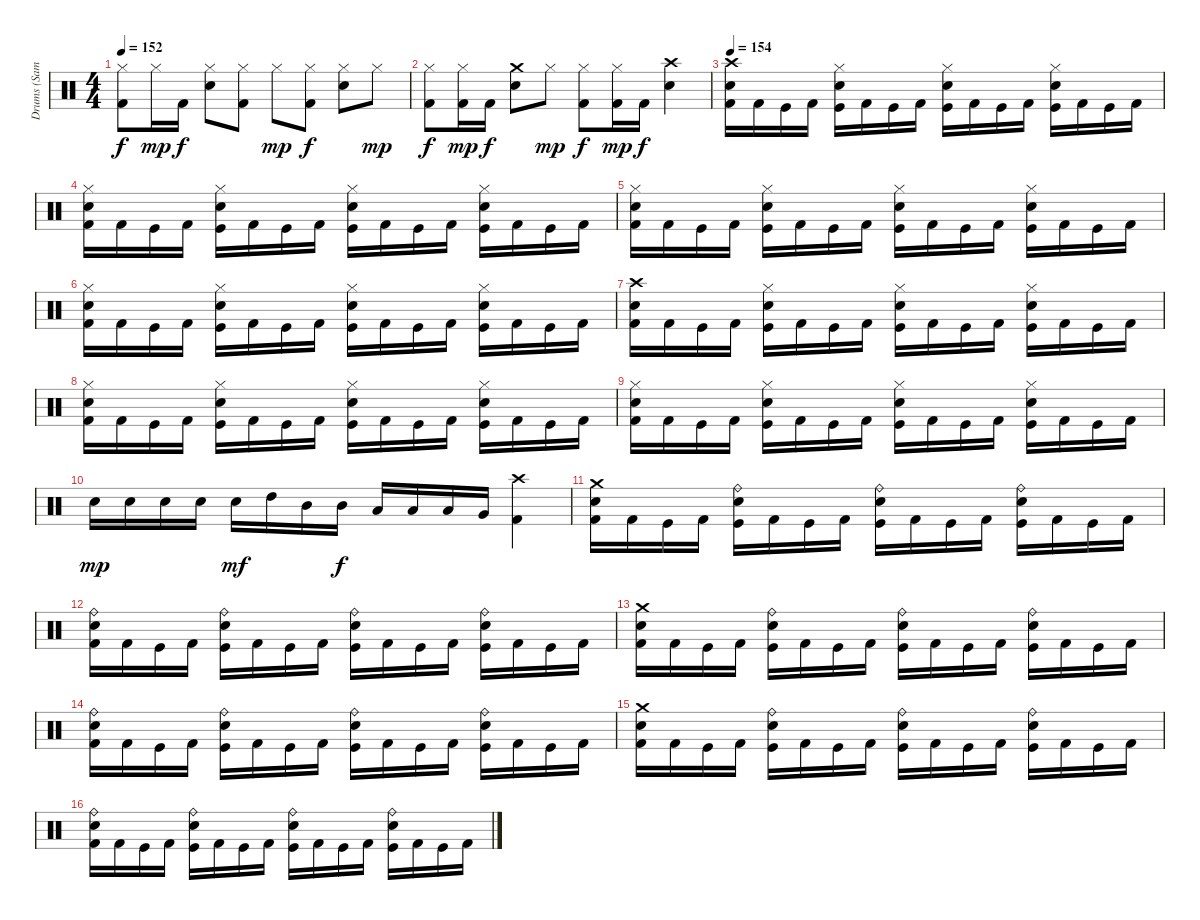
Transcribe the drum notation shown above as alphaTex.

\track ("Drums (Samuelson)" "Drums (Sam") {instrument percussion}
\staff
\articulation defaults
\ts (4 4)
\tempo 152
\clef neutral
\ks c
("Hi-Hat (closed)" "Kick (hit) 2").8{dy f} "Hi-Hat (closed)".16{dy mp} "Kick (hit) 2".16{dy f} ("Hi-Hat (closed)" "Electric Snare (hit)").8 ("Hi-Hat (closed)" "Kick (hit) 2").8 "Hi-Hat (closed)".8{dy mp} ("Hi-Hat (closed)" "Kick (hit) 2").8{dy f} ("Hi-Hat (closed)" "Electric Snare (hit)").8 "Hi-Hat (closed)".8{dy mp} |
("Hi-Hat (closed)" "Kick (hit) 2").8{dy f} ("Hi-Hat (closed)" "Kick (hit) 2").16{dy mp} "Kick (hit) 2".16{dy f} ("Crash medium (hit)" "Electric Snare (hit)").8 "Hi-Hat (closed)".8{dy mp} ("Hi-Hat (closed)" "Kick (hit) 2").8{dy f} ("Hi-Hat (closed)" "Kick (hit) 2").16{dy mp} "Kick (hit) 2".16{dy f} ("Crash high (hit)" "Electric Snare (hit)").4 |
\tempo 152
\tempo 154
("Crash high (hit)" "Electric Snare (hit)" "Kick (hit) 2").16 "Kick (hit) 2".16 "Kick (hit)".16 "Kick (hit) 2".16 ("Hi-Hat (closed)" "Electric Snare (hit)" "Kick (hit)").16 "Kick (hit) 2".16 "Kick (hit)".16 "Kick (hit) 2".16 ("Hi-Hat (closed)" "Electric Snare (hit)" "Kick (hit)").16 "Kick (hit) 2".16 "Kick (hit)".16 "Kick (hit) 2".16 ("Hi-Hat (closed)" "Electric Snare (hit)" "Kick (hit)").16 "Kick (hit) 2".16 "Kick (hit)".16 "Kick (hit) 2".16 |
("Hi-Hat (closed)" "Electric Snare (hit)" "Kick (hit) 2").16 "Kick (hit) 2".16 "Kick (hit)".16 "Kick (hit) 2".16 ("Hi-Hat (closed)" "Electric Snare (hit)" "Kick (hit)").16 "Kick (hit) 2".16 "Kick (hit)".16 "Kick (hit) 2".16 ("Hi-Hat (closed)" "Electric Snare (hit)" "Kick (hit)").16 "Kick (hit) 2".16 "Kick (hit)".16 "Kick (hit) 2".16 ("Hi-Hat (closed)" "Electric Snare (hit)" "Kick (hit)").16 "Kick (hit) 2".16 "Kick (hit)".16 "Kick (hit) 2".16 |
("Hi-Hat (closed)" "Electric Snare (hit)" "Kick (hit) 2").16 "Kick (hit) 2".16 "Kick (hit)".16 "Kick (hit) 2".16 ("Hi-Hat (closed)" "Electric Snare (hit)" "Kick (hit)").16 "Kick (hit) 2".16 "Kick (hit)".16 "Kick (hit) 2".16 ("Hi-Hat (closed)" "Electric Snare (hit)" "Kick (hit)").16 "Kick (hit) 2".16 "Kick (hit)".16 "Kick (hit) 2".16 ("Hi-Hat (closed)" "Electric Snare (hit)" "Kick (hit)").16 "Kick (hit) 2".16 "Kick (hit)".16 "Kick (hit) 2".16 |
("Hi-Hat (closed)" "Electric Snare (hit)" "Kick (hit) 2").16 "Kick (hit) 2".16 "Kick (hit)".16 "Kick (hit) 2".16 ("Hi-Hat (closed)" "Electric Snare (hit)" "Kick (hit)").16 "Kick (hit) 2".16 "Kick (hit)".16 "Kick (hit) 2".16 ("Hi-Hat (closed)" "Electric Snare (hit)" "Kick (hit)").16 "Kick (hit) 2".16 "Kick (hit)".16 "Kick (hit) 2".16 ("Hi-Hat (closed)" "Electric Snare (hit)" "Kick (hit)").16 "Kick (hit) 2".16 "Kick (hit)".16 "Kick (hit) 2".16 |
("Crash high (hit)" "Electric Snare (hit)" "Kick (hit) 2").16 "Kick (hit) 2".16 "Kick (hit)".16 "Kick (hit) 2".16 ("Hi-Hat (closed)" "Electric Snare (hit)" "Kick (hit)").16 "Kick (hit) 2".16 "Kick (hit)".16 "Kick (hit) 2".16 ("Hi-Hat (closed)" "Electric Snare (hit)" "Kick (hit)").16 "Kick (hit) 2".16 "Kick (hit)".16 "Kick (hit) 2".16 ("Hi-Hat (closed)" "Electric Snare (hit)" "Kick (hit)").16 "Kick (hit) 2".16 "Kick (hit)".16 "Kick (hit) 2".16 |
("Hi-Hat (closed)" "Electric Snare (hit)" "Kick (hit) 2").16 "Kick (hit) 2".16 "Kick (hit)".16 "Kick (hit) 2".16 ("Hi-Hat (closed)" "Electric Snare (hit)" "Kick (hit)").16 "Kick (hit) 2".16 "Kick (hit)".16 "Kick (hit) 2".16 ("Hi-Hat (closed)" "Electric Snare (hit)" "Kick (hit)").16 "Kick (hit) 2".16 "Kick (hit)".16 "Kick (hit) 2".16 ("Hi-Hat (closed)" "Electric Snare (hit)" "Kick (hit)").16 "Kick (hit) 2".16 "Kick (hit)".16 "Kick (hit) 2".16 |
("Hi-Hat (closed)" "Electric Snare (hit)" "Kick (hit) 2").16 "Kick (hit) 2".16 "Kick (hit)".16 "Kick (hit) 2".16 ("Hi-Hat (closed)" "Electric Snare (hit)" "Kick (hit)").16 "Kick (hit) 2".16 "Kick (hit)".16 "Kick (hit) 2".16 ("Hi-Hat (closed)" "Electric Snare (hit)" "Kick (hit)").16 "Kick (hit) 2".16 "Kick (hit)".16 "Kick (hit) 2".16 ("Hi-Hat (closed)" "Electric Snare (hit)" "Kick (hit)").16 "Kick (hit) 2".16 "Kick (hit)".16 "Kick (hit) 2".16 |
"Electric Snare (hit)".16{dy mp} "Electric Snare (hit)".16 "Electric Snare (hit)".16 "Electric Snare (hit)".16 "Electric Snare (hit)".16{dy mf} "High Tom (hit)".16 "Mid Tom (hit)".16 "Mid Tom (hit)".16{dy f} "Low Tom (hit)".16 "Low Tom (hit)".16 "Low Tom (hit)".16 "Very Low Tom (hit)".16 ("Crash high (hit)" "Kick (hit) 2").4 |
("Crash medium (hit)" "Electric Snare (hit)" "Kick (hit) 2").16 "Kick (hit) 2".16 "Kick (hit)".16 "Kick (hit) 2".16 ("Ride (bell)" "Electric Snare (hit)" "Kick (hit)").16 "Kick (hit) 2".16 "Kick (hit)".16 "Kick (hit) 2".16 ("Ride (bell)" "Electric Snare (hit)" "Kick (hit)").16 "Kick (hit) 2".16 "Kick (hit)".16 "Kick (hit) 2".16 ("Ride (bell)" "Electric Snare (hit)" "Kick (hit)").16 "Kick (hit) 2".16 "Kick (hit)".16 "Kick (hit) 2".16 |
("Ride (bell)" "Electric Snare (hit)" "Kick (hit) 2").16 "Kick (hit) 2".16 "Kick (hit)".16 "Kick (hit) 2".16 ("Ride (bell)" "Electric Snare (hit)" "Kick (hit)").16 "Kick (hit) 2".16 "Kick (hit)".16 "Kick (hit) 2".16 ("Ride (bell)" "Electric Snare (hit)" "Kick (hit)").16 "Kick (hit) 2".16 "Kick (hit)".16 "Kick (hit) 2".16 ("Ride (bell)" "Electric Snare (hit)" "Kick (hit)").16 "Kick (hit) 2".16 "Kick (hit)".16 "Kick (hit) 2".16 |
("Crash medium (hit)" "Electric Snare (hit)" "Kick (hit) 2").16 "Kick (hit) 2".16 "Kick (hit)".16 "Kick (hit) 2".16 ("Ride (bell)" "Electric Snare (hit)" "Kick (hit)").16 "Kick (hit) 2".16 "Kick (hit)".16 "Kick (hit) 2".16 ("Ride (bell)" "Electric Snare (hit)" "Kick (hit)").16 "Kick (hit) 2".16 "Kick (hit)".16 "Kick (hit) 2".16 ("Ride (bell)" "Electric Snare (hit)" "Kick (hit)").16 "Kick (hit) 2".16 "Kick (hit)".16 "Kick (hit) 2".16 |
("Ride (bell)" "Electric Snare (hit)" "Kick (hit) 2").16 "Kick (hit) 2".16 "Kick (hit)".16 "Kick (hit) 2".16 ("Ride (bell)" "Electric Snare (hit)" "Kick (hit)").16 "Kick (hit) 2".16 "Kick (hit)".16 "Kick (hit) 2".16 ("Ride (bell)" "Electric Snare (hit)" "Kick (hit)").16 "Kick (hit) 2".16 "Kick (hit)".16 "Kick (hit) 2".16 ("Ride (bell)" "Electric Snare (hit)" "Kick (hit)").16 "Kick (hit) 2".16 "Kick (hit)".16 "Kick (hit) 2".16 |
("Crash medium (hit)" "Electric Snare (hit)" "Kick (hit) 2").16 "Kick (hit) 2".16 "Kick (hit)".16 "Kick (hit) 2".16 ("Ride (bell)" "Electric Snare (hit)" "Kick (hit)").16 "Kick (hit) 2".16 "Kick (hit)".16 "Kick (hit) 2".16 ("Ride (bell)" "Electric Snare (hit)" "Kick (hit)").16 "Kick (hit) 2".16 "Kick (hit)".16 "Kick (hit) 2".16 ("Ride (bell)" "Electric Snare (hit)" "Kick (hit)").16 "Kick (hit) 2".16 "Kick (hit)".16 "Kick (hit) 2".16 |
("Ride (bell)" "Electric Snare (hit)" "Kick (hit) 2").16 "Kick (hit) 2".16 "Kick (hit)".16 "Kick (hit) 2".16 ("Ride (bell)" "Electric Snare (hit)" "Kick (hit)").16 "Kick (hit) 2".16 "Kick (hit)".16 "Kick (hit) 2".16 ("Ride (bell)" "Electric Snare (hit)" "Kick (hit)").16 "Kick (hit) 2".16 "Kick (hit)".16 "Kick (hit) 2".16 ("Ride (bell)" "Electric Snare (hit)" "Kick (hit)").16 "Kick (hit) 2".16 "Kick (hit)".16 "Kick (hit) 2".16
